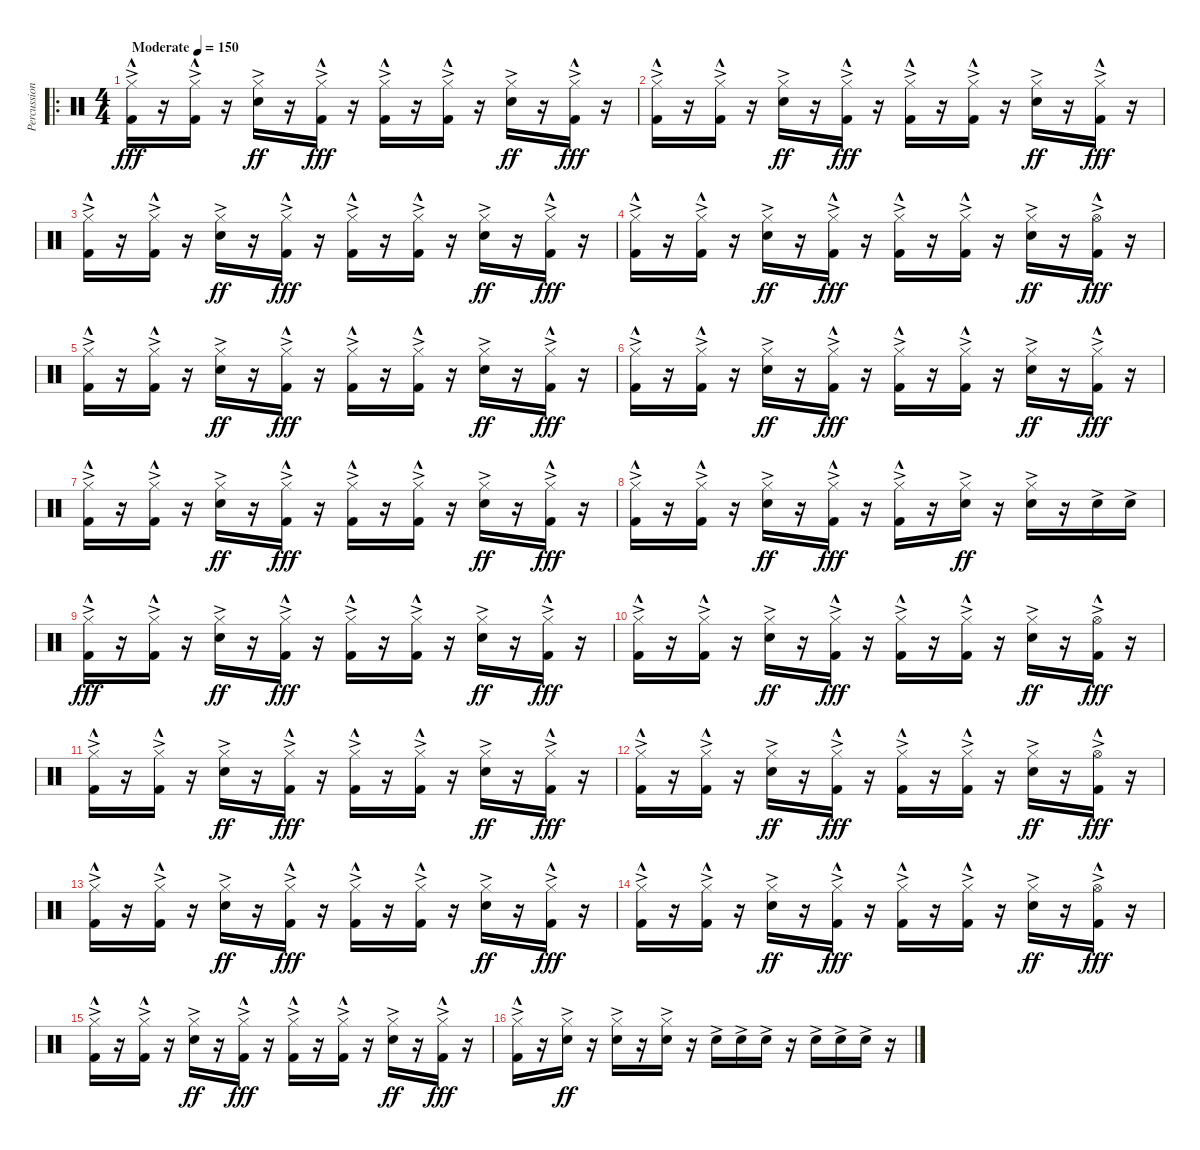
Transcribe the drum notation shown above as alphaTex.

\track ("Percussion" "Percussion") {instrument percussion bank 2}
\staff {score}
\articulation defaults
\ro
\ts (4 4)
\tempo (150 "Moderate")
\clef neutral
\ks c
("Hi-Hat (closed)"{ac} "Kick (hit) 2"{hac}).16{dy fff} r.16 ("Hi-Hat (closed)"{ac} "Kick (hit) 2"{hac}).16 r.16 ("Hi-Hat (closed)"{ac} "Snare (hit) 2"{ac}).16{dy ff} r.16 ("Hi-Hat (closed)"{ac} "Kick (hit) 2"{hac}).16{dy fff} r.16 ("Hi-Hat (closed)"{ac} "Kick (hit) 2"{hac}).16 r.16 ("Hi-Hat (closed)"{ac} "Kick (hit) 2"{hac}).16 r.16 ("Hi-Hat (closed)"{ac} "Snare (hit) 2"{ac}).16{dy ff} r.16 ("Hi-Hat (closed)"{ac} "Kick (hit) 2"{hac}).16{dy fff} r.16 |
("Hi-Hat (closed)"{ac} "Kick (hit) 2"{hac}).16 r.16 ("Hi-Hat (closed)"{ac} "Kick (hit) 2"{hac}).16 r.16 ("Hi-Hat (closed)"{ac} "Snare (hit) 2"{ac}).16{dy ff} r.16 ("Hi-Hat (closed)"{ac} "Kick (hit) 2"{hac}).16{dy fff} r.16 ("Hi-Hat (closed)"{ac} "Kick (hit) 2"{hac}).16 r.16 ("Hi-Hat (closed)"{ac} "Kick (hit) 2"{hac}).16 r.16 ("Hi-Hat (closed)"{ac} "Snare (hit) 2"{ac}).16{dy ff} r.16 ("Hi-Hat (closed)"{ac} "Kick (hit) 2"{hac}).16{dy fff} r.16 |
("Hi-Hat (closed)"{ac} "Kick (hit) 2"{hac}).16 r.16 ("Hi-Hat (closed)"{ac} "Kick (hit) 2"{hac}).16 r.16 ("Hi-Hat (closed)"{ac} "Snare (hit) 2"{ac}).16{dy ff} r.16 ("Hi-Hat (closed)"{ac} "Kick (hit) 2"{hac}).16{dy fff} r.16 ("Hi-Hat (closed)"{ac} "Kick (hit) 2"{hac}).16 r.16 ("Hi-Hat (closed)"{ac} "Kick (hit) 2"{hac}).16 r.16 ("Hi-Hat (closed)"{ac} "Snare (hit) 2"{ac}).16{dy ff} r.16 ("Hi-Hat (closed)"{ac} "Kick (hit) 2"{hac}).16{dy fff} r.16 |
("Hi-Hat (closed)"{ac} "Kick (hit) 2"{hac}).16 r.16 ("Hi-Hat (closed)"{ac} "Kick (hit) 2"{hac}).16 r.16 ("Hi-Hat (closed)"{ac} "Snare (hit) 2"{ac}).16{dy ff} r.16 ("Hi-Hat (closed)"{ac} "Kick (hit) 2"{hac}).16{dy fff} r.16 ("Hi-Hat (closed)"{ac} "Kick (hit) 2"{hac}).16 r.16 ("Hi-Hat (closed)"{ac} "Kick (hit) 2"{hac}).16 r.16 ("Hi-Hat (closed)"{ac} "Snare (hit) 2"{ac}).16{dy ff} r.16 ("Hi-Hat (open)"{ac} "Kick (hit) 2"{hac}).16{dy fff} r.16 |
("Hi-Hat (closed)"{ac} "Kick (hit) 2"{hac}).16 r.16 ("Hi-Hat (closed)"{ac} "Kick (hit) 2"{hac}).16 r.16 ("Hi-Hat (closed)"{ac} "Snare (hit) 2"{ac}).16{dy ff} r.16 ("Hi-Hat (closed)"{ac} "Kick (hit) 2"{hac}).16{dy fff} r.16 ("Hi-Hat (closed)"{ac} "Kick (hit) 2"{hac}).16 r.16 ("Hi-Hat (closed)"{ac} "Kick (hit) 2"{hac}).16 r.16 ("Hi-Hat (closed)"{ac} "Snare (hit) 2"{ac}).16{dy ff} r.16 ("Hi-Hat (closed)"{ac} "Kick (hit) 2"{hac}).16{dy fff} r.16 |
("Hi-Hat (closed)"{ac} "Kick (hit) 2"{hac}).16 r.16 ("Hi-Hat (closed)"{ac} "Kick (hit) 2"{hac}).16 r.16 ("Hi-Hat (closed)"{ac} "Snare (hit) 2"{ac}).16{dy ff} r.16 ("Hi-Hat (closed)"{ac} "Kick (hit) 2"{hac}).16{dy fff} r.16 ("Hi-Hat (closed)"{ac} "Kick (hit) 2"{hac}).16 r.16 ("Hi-Hat (closed)"{ac} "Kick (hit) 2"{hac}).16 r.16 ("Hi-Hat (closed)"{ac} "Snare (hit) 2"{ac}).16{dy ff} r.16 ("Hi-Hat (closed)"{ac} "Kick (hit) 2"{hac}).16{dy fff} r.16 |
("Hi-Hat (closed)"{ac} "Kick (hit) 2"{hac}).16 r.16 ("Hi-Hat (closed)"{ac} "Kick (hit) 2"{hac}).16 r.16 ("Hi-Hat (closed)"{ac} "Snare (hit) 2"{ac}).16{dy ff} r.16 ("Hi-Hat (closed)"{ac} "Kick (hit) 2"{hac}).16{dy fff} r.16 ("Hi-Hat (closed)"{ac} "Kick (hit) 2"{hac}).16 r.16 ("Hi-Hat (closed)"{ac} "Kick (hit) 2"{hac}).16 r.16 ("Hi-Hat (closed)"{ac} "Snare (hit) 2"{ac}).16{dy ff} r.16 ("Hi-Hat (closed)"{ac} "Kick (hit) 2"{hac}).16{dy fff} r.16 |
("Hi-Hat (closed)"{ac} "Kick (hit) 2"{hac}).16 r.16 ("Hi-Hat (closed)"{ac} "Kick (hit) 2"{hac}).16 r.16 ("Hi-Hat (closed)"{ac} "Snare (hit) 2"{ac}).16{dy ff} r.16 ("Hi-Hat (closed)"{ac} "Kick (hit) 2"{hac}).16{dy fff} r.16 ("Hi-Hat (closed)"{ac} "Kick (hit) 2"{hac}).16 r.16 ("Hi-Hat (closed)"{ac} "Snare (hit) 2"{ac}).16{dy ff} r.16 ("Hi-Hat (closed)"{ac} "Snare (hit) 2"{ac}).16 r.16 "Snare (hit) 2"{ac}.16 "Snare (hit) 2"{ac}.16 |
("Hi-Hat (closed)"{ac} "Kick (hit) 2"{hac}).16{dy fff} r.16 ("Hi-Hat (closed)"{ac} "Kick (hit) 2"{hac}).16 r.16 ("Hi-Hat (closed)"{ac} "Snare (hit) 2"{ac}).16{dy ff} r.16 ("Hi-Hat (closed)"{ac} "Kick (hit) 2"{hac}).16{dy fff} r.16 ("Hi-Hat (closed)"{ac} "Kick (hit) 2"{hac}).16 r.16 ("Hi-Hat (closed)"{ac} "Kick (hit) 2"{hac}).16 r.16 ("Hi-Hat (closed)"{ac} "Snare (hit) 2"{ac}).16{dy ff} r.16 ("Hi-Hat (closed)"{ac} "Kick (hit) 2"{hac}).16{dy fff} r.16 |
("Hi-Hat (closed)"{ac} "Kick (hit) 2"{hac}).16 r.16 ("Hi-Hat (closed)"{ac} "Kick (hit) 2"{hac}).16 r.16 ("Hi-Hat (closed)"{ac} "Snare (hit) 2"{ac}).16{dy ff} r.16 ("Hi-Hat (closed)"{ac} "Kick (hit) 2"{hac}).16{dy fff} r.16 ("Hi-Hat (closed)"{ac} "Kick (hit) 2"{hac}).16 r.16 ("Hi-Hat (closed)"{ac} "Kick (hit) 2"{hac}).16 r.16 ("Hi-Hat (closed)"{ac} "Snare (hit) 2"{ac}).16{dy ff} r.16 ("Hi-Hat (open)"{ac} "Kick (hit) 2"{hac}).16{dy fff} r.16 |
("Hi-Hat (closed)"{ac} "Kick (hit) 2"{hac}).16 r.16 ("Hi-Hat (closed)"{ac} "Kick (hit) 2"{hac}).16 r.16 ("Hi-Hat (closed)"{ac} "Snare (hit) 2"{ac}).16{dy ff} r.16 ("Hi-Hat (closed)"{ac} "Kick (hit) 2"{hac}).16{dy fff} r.16 ("Hi-Hat (closed)"{ac} "Kick (hit) 2"{hac}).16 r.16 ("Hi-Hat (closed)"{ac} "Kick (hit) 2"{hac}).16 r.16 ("Hi-Hat (closed)"{ac} "Snare (hit) 2"{ac}).16{dy ff} r.16 ("Hi-Hat (closed)"{ac} "Kick (hit) 2"{hac}).16{dy fff} r.16 |
("Hi-Hat (closed)"{ac} "Kick (hit) 2"{hac}).16 r.16 ("Hi-Hat (closed)"{ac} "Kick (hit) 2"{hac}).16 r.16 ("Hi-Hat (closed)"{ac} "Snare (hit) 2"{ac}).16{dy ff} r.16 ("Hi-Hat (closed)"{ac} "Kick (hit) 2"{hac}).16{dy fff} r.16 ("Hi-Hat (closed)"{ac} "Kick (hit) 2"{hac}).16 r.16 ("Hi-Hat (closed)"{ac} "Kick (hit) 2"{hac}).16 r.16 ("Hi-Hat (closed)"{ac} "Snare (hit) 2"{ac}).16{dy ff} r.16 ("Hi-Hat (open)"{ac} "Kick (hit) 2"{hac}).16{dy fff} r.16 |
("Hi-Hat (closed)"{ac} "Kick (hit) 2"{hac}).16 r.16 ("Hi-Hat (closed)"{ac} "Kick (hit) 2"{hac}).16 r.16 ("Hi-Hat (closed)"{ac} "Snare (hit) 2"{ac}).16{dy ff} r.16 ("Hi-Hat (closed)"{ac} "Kick (hit) 2"{hac}).16{dy fff} r.16 ("Hi-Hat (closed)"{ac} "Kick (hit) 2"{hac}).16 r.16 ("Hi-Hat (closed)"{ac} "Kick (hit) 2"{hac}).16 r.16 ("Hi-Hat (closed)"{ac} "Snare (hit) 2"{ac}).16{dy ff} r.16 ("Hi-Hat (closed)"{ac} "Kick (hit) 2"{hac}).16{dy fff} r.16 |
("Hi-Hat (closed)"{ac} "Kick (hit) 2"{hac}).16 r.16 ("Hi-Hat (closed)"{ac} "Kick (hit) 2"{hac}).16 r.16 ("Hi-Hat (closed)"{ac} "Snare (hit) 2"{ac}).16{dy ff} r.16 ("Hi-Hat (closed)"{ac} "Kick (hit) 2"{hac}).16{dy fff} r.16 ("Hi-Hat (closed)"{ac} "Kick (hit) 2"{hac}).16 r.16 ("Hi-Hat (closed)"{ac} "Kick (hit) 2"{hac}).16 r.16 ("Hi-Hat (closed)"{ac} "Snare (hit) 2"{ac}).16{dy ff} r.16 ("Hi-Hat (open)"{ac} "Kick (hit) 2"{hac}).16{dy fff} r.16 |
("Hi-Hat (closed)"{ac} "Kick (hit) 2"{hac}).16 r.16 ("Hi-Hat (closed)"{ac} "Kick (hit) 2"{hac}).16 r.16 ("Hi-Hat (closed)"{ac} "Snare (hit) 2"{ac}).16{dy ff} r.16 ("Hi-Hat (closed)"{ac} "Kick (hit) 2"{hac}).16{dy fff} r.16 ("Hi-Hat (closed)"{ac} "Kick (hit) 2"{hac}).16 r.16 ("Hi-Hat (closed)"{ac} "Kick (hit) 2"{hac}).16 r.16 ("Hi-Hat (closed)"{ac} "Snare (hit) 2"{ac}).16{dy ff} r.16 ("Hi-Hat (closed)"{ac} "Kick (hit) 2"{hac}).16{dy fff} r.16 |
("Hi-Hat (closed)"{ac} "Kick (hit) 2"{hac}).16 r.16 ("Hi-Hat (closed)"{ac} "Snare (hit) 2"{ac}).16{dy ff} r.16 ("Hi-Hat (closed)"{ac} "Snare (hit) 2"{ac}).16 r.16 ("Hi-Hat (closed)"{ac} "Snare (hit) 2"{ac}).16 r.16 "Snare (hit) 2"{ac}.16 "Snare (hit) 2"{ac}.16 "Snare (hit) 2"{ac}.16 r.16 "Snare (hit) 2"{ac}.16 "Snare (hit) 2"{ac}.16 "Snare (hit) 2"{ac}.16 r.16
